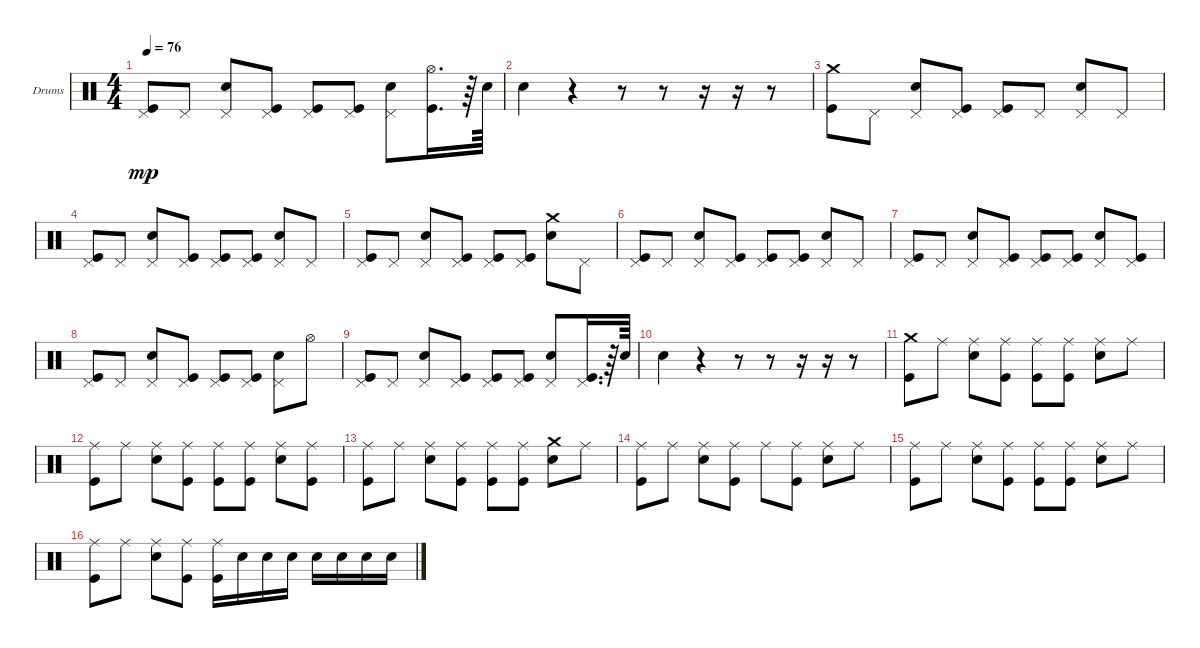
\bracketExtendMode groupsimilarinstruments
\firstSystemTrackNameOrientation horizontal
\otherSystemsTrackNameOrientation horizontal
\track ("Drumkit" "Drums") {instrument percussion}
\staff {score}
\articulation defaults
\ts (4 4)
\tempo 76
\clef neutral
\ks c
("Pedal Hi-Hat (hit)" "Kick (hit)").8{dy mp} "Pedal Hi-Hat (hit)".8 ("Pedal Hi-Hat (hit)" "Snare (hit) 2").8 ("Pedal Hi-Hat (hit)" "Kick (hit)").8 ("Pedal Hi-Hat (hit)" "Kick (hit)").8 ("Pedal Hi-Hat (hit)" "Kick (hit)").8 ("Pedal Hi-Hat (hit)" "Snare (hit) 2").8 ("Kick (hit)" "Hi-Hat (open)").16{d} r.64 "Snare (hit) 2".64 |
"Snare (hit) 2".4 r.4 r.8 r.8 r.16 r.16 r.8 |
("Kick (hit)" "Crash medium (hit)").8 "Pedal Hi-Hat (hit)".8 ("Pedal Hi-Hat (hit)" "Snare (hit) 2").8 ("Pedal Hi-Hat (hit)" "Kick (hit)").8 ("Pedal Hi-Hat (hit)" "Kick (hit)").8 "Pedal Hi-Hat (hit)".8 ("Pedal Hi-Hat (hit)" "Snare (hit) 2").8 "Pedal Hi-Hat (hit)".8 |
("Pedal Hi-Hat (hit)" "Kick (hit)").8 "Pedal Hi-Hat (hit)".8 ("Pedal Hi-Hat (hit)" "Snare (hit) 2").8 ("Pedal Hi-Hat (hit)" "Kick (hit)").8 ("Pedal Hi-Hat (hit)" "Kick (hit)").8 ("Pedal Hi-Hat (hit)" "Kick (hit)").8 ("Pedal Hi-Hat (hit)" "Snare (hit) 2").8 "Pedal Hi-Hat (hit)".8 |
("Pedal Hi-Hat (hit)" "Kick (hit)").8 "Pedal Hi-Hat (hit)".8 ("Pedal Hi-Hat (hit)" "Snare (hit) 2").8 ("Pedal Hi-Hat (hit)" "Kick (hit)").8 ("Pedal Hi-Hat (hit)" "Kick (hit)").8 ("Pedal Hi-Hat (hit)" "Kick (hit)").8 ("Snare (hit) 2" "Crash medium (hit)").8 "Pedal Hi-Hat (hit)".8 |
("Kick (hit)" "Pedal Hi-Hat (hit)").8 "Pedal Hi-Hat (hit)".8 ("Pedal Hi-Hat (hit)" "Snare (hit) 2").8 ("Pedal Hi-Hat (hit)" "Kick (hit)").8 ("Pedal Hi-Hat (hit)" "Kick (hit)").8 ("Pedal Hi-Hat (hit)" "Kick (hit)").8 ("Pedal Hi-Hat (hit)" "Snare (hit) 2").8 "Pedal Hi-Hat (hit)".8 |
("Pedal Hi-Hat (hit)" "Kick (hit)").8 "Pedal Hi-Hat (hit)".8 ("Pedal Hi-Hat (hit)" "Snare (hit) 2").8 ("Pedal Hi-Hat (hit)" "Kick (hit)").8 ("Pedal Hi-Hat (hit)" "Kick (hit)").8 ("Pedal Hi-Hat (hit)" "Kick (hit)").8 ("Pedal Hi-Hat (hit)" "Snare (hit) 2").8 ("Pedal Hi-Hat (hit)" "Kick (hit)").8 |
("Kick (hit)" "Pedal Hi-Hat (hit)").8 "Pedal Hi-Hat (hit)".8 ("Pedal Hi-Hat (hit)" "Snare (hit) 2").8 ("Pedal Hi-Hat (hit)" "Kick (hit)").8 ("Pedal Hi-Hat (hit)" "Kick (hit)").8 ("Pedal Hi-Hat (hit)" "Kick (hit)").8 ("Pedal Hi-Hat (hit)" "Snare (hit) 2").8 "Hi-Hat (open)".8 |
("Pedal Hi-Hat (hit)" "Kick (hit)").8 "Pedal Hi-Hat (hit)".8 ("Pedal Hi-Hat (hit)" "Snare (hit) 2").8 ("Pedal Hi-Hat (hit)" "Kick (hit)").8 ("Pedal Hi-Hat (hit)" "Kick (hit)").8 ("Pedal Hi-Hat (hit)" "Kick (hit)").8 ("Pedal Hi-Hat (hit)" "Snare (hit) 2").8 ("Pedal Hi-Hat (hit)" "Kick (hit)").16{d} r.64 "Snare (hit) 2".64 |
"Snare (hit) 2".4 r.4 r.8 r.8 r.16 r.16 r.8 |
("Kick (hit)" "Crash medium (hit)").8 "Ride (middle)".8 ("Snare (hit) 2" "Ride (middle)").8 ("Kick (hit)" "Ride (middle)").8 ("Kick (hit)" "Ride (middle)").8 ("Kick (hit)" "Ride (middle)").8 ("Snare (hit) 2" "Ride (middle)").8 "Ride (middle)".8 |
("Kick (hit)" "Ride (middle)").8 "Ride (middle)".8 ("Snare (hit) 2" "Ride (middle)").8 ("Kick (hit)" "Ride (middle)").8 ("Kick (hit)" "Ride (middle)").8 ("Kick (hit)" "Ride (middle)").8 ("Ride (middle)" "Snare (hit) 2").8 ("Ride (middle)" "Kick (hit)").8 |
("Kick (hit)" "Ride (middle)").8 "Ride (middle)".8 ("Snare (hit) 2" "Ride (middle)").8 ("Kick (hit)" "Ride (middle)").8 ("Kick (hit)" "Ride (middle)").8 ("Kick (hit)" "Ride (middle)").8 ("Snare (hit) 2" "Crash medium (hit)").8 "Ride (middle)".8 |
("Kick (hit)" "Ride (middle)").8 "Ride (middle)".8 ("Snare (hit) 2" "Ride (middle)").8 ("Kick (hit)" "Ride (middle)").8 "Ride (middle)".8 ("Kick (hit)" "Ride (middle)").8 ("Snare (hit) 2" "Ride (middle)").8 "Ride (middle)".8 |
("Kick (hit)" "Ride (middle)").8 "Ride (middle)".8 ("Snare (hit) 2" "Ride (middle)").8 ("Kick (hit)" "Ride (middle)").8 ("Kick (hit)" "Ride (middle)").8 ("Kick (hit)" "Ride (middle)").8 ("Snare (hit) 2" "Ride (middle)").8 "Ride (middle)".8 |
("Kick (hit)" "Ride (middle)").8 "Ride (middle)".8 ("Snare (hit) 2" "Ride (middle)").8 ("Kick (hit)" "Ride (middle)").8 ("Kick (hit)" "Ride (middle)").16 "Snare (hit) 2".16 "Snare (hit) 2".16 "Snare (hit) 2".16 "Snare (hit) 2".16 "Snare (hit) 2".16 "Snare (hit) 2".16 "Snare (hit) 2".16
